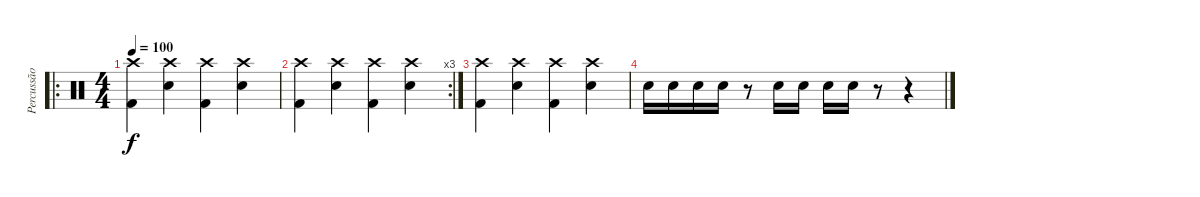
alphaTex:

\track ("Percussão" "Percussão") {instrument percussion}
\staff {score}
\articulation defaults
\ro
\ts (4 4)
\tempo 100
\clef neutral
\ks c
("Crash high (hit)" "Kick (hit) 2").4{dy f} ("Crash high (hit)" "Snare (hit) 2").4 ("Crash high (hit)" "Kick (hit) 2").4 ("Crash high (hit)" "Snare (hit) 2").4 |
\rc 3
("Crash high (hit)" "Kick (hit) 2").4 ("Crash high (hit)" "Snare (hit) 2").4 ("Crash high (hit)" "Kick (hit) 2").4 ("Crash high (hit)" "Snare (hit) 2").4 |
("Crash high (hit)" "Kick (hit) 2").4 ("Crash high (hit)" "Snare (hit) 2").4 ("Crash high (hit)" "Kick (hit) 2").4 ("Crash high (hit)" "Snare (hit) 2").4 |
"Snare (hit) 2".16 "Snare (hit) 2".16 "Snare (hit) 2".16 "Snare (hit) 2".16 r.8 "Snare (hit) 2".16 "Snare (hit) 2".16 "Snare (hit) 2".16 "Snare (hit) 2".16 r.8 r.4
